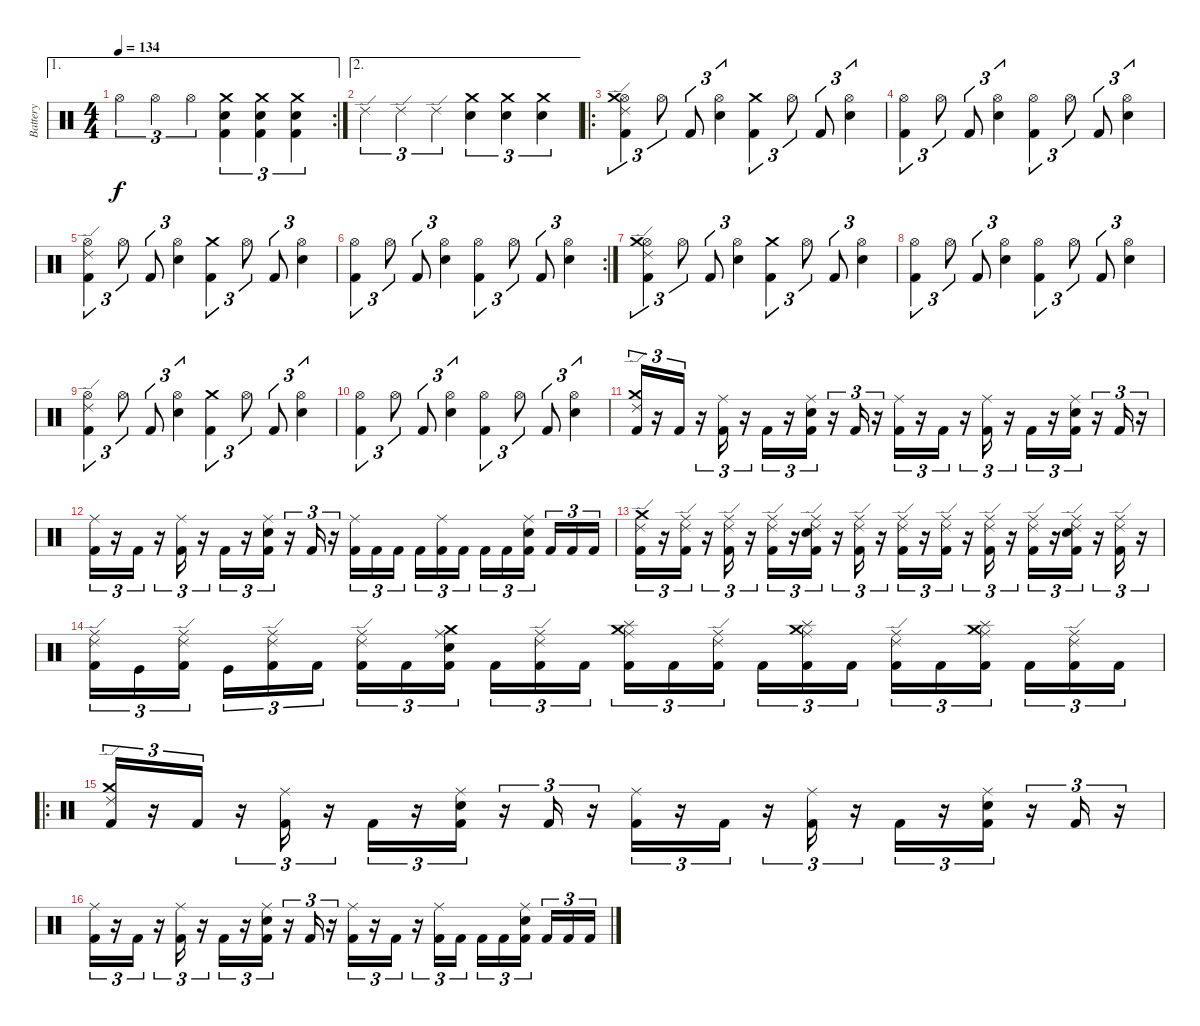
\track ("Battery" "Battery") {instrument percussion}
\staff {score}
\articulation defaults
\ae 1
\rc 2
\ts (4 4)
\tempo 134
\clef neutral
\ks c "Hi-Hat (open)".4{tu (3 2) dy f} "Hi-Hat (open)".4{tu (3 2)} "Hi-Hat (open)".4{tu (3 2)}
("Kick (hit) 2" "Electric Snare (hit)" "Crash medium (hit)").4{tu (3 2)} ("Kick (hit) 2" "Electric Snare (hit)" "Crash medium (hit)").4{tu (3 2)} ("Kick (hit) 2" "Electric Snare (hit)" "Crash medium (hit)").4{tu (3 2)} |
\ae 2 "Ride (edge) 2".4{tu (3 2)} "Ride (edge) 2".4{tu (3 2)} "Ride (edge) 2".4{tu (3 2)}
("Electric Snare (hit)" "Crash medium (hit)").4{tu (3 2)} ("Electric Snare (hit)" "Crash medium (hit)").4{tu (3 2)} ("Electric Snare (hit)" "Crash medium (hit)").4{tu (3 2)} |
\ro
("Kick (hit) 2" "Ride (edge) 2" "Hi-Hat (open)" "Crash medium (hit)").4{tu (3 2)} "Hi-Hat (open)".8{tu (3 2)} "Kick (hit) 2".8{tu (3 2)} ("Electric Snare (hit)" "Hi-Hat (open)").4{tu (3 2)} ("Kick (hit) 2" "Crash medium (hit)").4{tu (3 2)} "Hi-Hat (open)".8{tu (3 2)} "Kick (hit) 2".8{tu (3 2)} ("Electric Snare (hit)" "Hi-Hat (open)").4{tu (3 2)} |
("Kick (hit) 2" "Hi-Hat (open)").4{tu (3 2)} "Hi-Hat (open)".8{tu (3 2)} "Kick (hit) 2".8{tu (3 2)} ("Electric Snare (hit)" "Hi-Hat (open)").4{tu (3 2)} ("Kick (hit) 2" "Hi-Hat (open)").4{tu (3 2)} "Hi-Hat (open)".8{tu (3 2)} "Kick (hit) 2".8{tu (3 2)} ("Electric Snare (hit)" "Hi-Hat (open)").4{tu (3 2)} |
("Kick (hit) 2" "Ride (edge) 2" "Hi-Hat (open)").4{tu (3 2)} "Hi-Hat (open)".8{tu (3 2)} "Kick (hit) 2".8{tu (3 2)} ("Electric Snare (hit)" "Hi-Hat (open)").4{tu (3 2)} ("Kick (hit) 2" "Crash medium (hit)").4{tu (3 2)} "Hi-Hat (open)".8{tu (3 2)} "Kick (hit) 2".8{tu (3 2)} ("Electric Snare (hit)" "Hi-Hat (open)").4{tu (3 2)} |
\rc 2
("Kick (hit) 2" "Hi-Hat (open)").4{tu (3 2)} "Hi-Hat (open)".8{tu (3 2)} "Kick (hit) 2".8{tu (3 2)} ("Electric Snare (hit)" "Hi-Hat (open)").4{tu (3 2)} ("Kick (hit) 2" "Hi-Hat (open)").4{tu (3 2)} "Hi-Hat (open)".8{tu (3 2)} "Kick (hit) 2".8{tu (3 2)} ("Electric Snare (hit)" "Hi-Hat (open)").4{tu (3 2)} |
("Kick (hit) 2" "Ride (edge) 2" "Hi-Hat (open)" "Crash medium (hit)").4{tu (3 2)} "Hi-Hat (open)".8{tu (3 2)} "Kick (hit) 2".8{tu (3 2)} ("Electric Snare (hit)" "Hi-Hat (open)").4{tu (3 2)} ("Kick (hit) 2" "Crash medium (hit)").4{tu (3 2)} "Hi-Hat (open)".8{tu (3 2)} "Kick (hit) 2".8{tu (3 2)} ("Electric Snare (hit)" "Hi-Hat (open)").4{tu (3 2)} |
("Kick (hit) 2" "Hi-Hat (open)").4{tu (3 2)} "Hi-Hat (open)".8{tu (3 2)} "Kick (hit) 2".8{tu (3 2)} ("Electric Snare (hit)" "Hi-Hat (open)").4{tu (3 2)} ("Kick (hit) 2" "Hi-Hat (open)").4{tu (3 2)} "Hi-Hat (open)".8{tu (3 2)} "Kick (hit) 2".8{tu (3 2)} ("Electric Snare (hit)" "Hi-Hat (open)").4{tu (3 2)} |
("Kick (hit) 2" "Ride (edge) 2" "Hi-Hat (open)").4{tu (3 2)} "Hi-Hat (open)".8{tu (3 2)} "Kick (hit) 2".8{tu (3 2)} ("Electric Snare (hit)" "Hi-Hat (open)").4{tu (3 2)} ("Kick (hit) 2" "Crash medium (hit)").4{tu (3 2)} "Hi-Hat (open)".8{tu (3 2)} "Kick (hit) 2".8{tu (3 2)} ("Electric Snare (hit)" "Hi-Hat (open)").4{tu (3 2)} |
("Kick (hit) 2" "Hi-Hat (open)").4{tu (3 2)} "Hi-Hat (open)".8{tu (3 2)} "Kick (hit) 2".8{tu (3 2)} ("Electric Snare (hit)" "Hi-Hat (open)").4{tu (3 2)} ("Kick (hit) 2" "Hi-Hat (open)").4{tu (3 2)} "Hi-Hat (open)".8{tu (3 2)} "Kick (hit) 2".8{tu (3 2)} ("Electric Snare (hit)" "Hi-Hat (open)").4{tu (3 2)} |
("Kick (hit) 2" "Ride (edge) 2" "Crash medium (hit)").16{tu (3 2)} r.16{tu (3 2)} "Kick (hit) 2".16{tu (3 2)} r.16{tu (3 2)} ("Kick (hit) 2" "Ride (middle)").16{tu (3 2)} r.16{tu (3 2)} "Kick (hit) 2".16{tu (3 2)} r.16{tu (3 2)} ("Kick (hit) 2" "Electric Snare (hit)" "Ride (middle)").16{tu (3 2)} r.16{tu (3 2)} "Kick (hit) 2".16{tu (3 2)} r.16{tu (3 2)} ("Kick (hit) 2" "Ride (middle)").16{tu (3 2)} r.16{tu (3 2)} "Kick (hit) 2".16{tu (3 2)} r.16{tu (3 2)} ("Kick (hit) 2" "Ride (middle)").16{tu (3 2)} r.16{tu (3 2)} "Kick (hit) 2".16{tu (3 2)} r.16{tu (3 2)} ("Kick (hit) 2" "Electric Snare (hit)" "Ride (middle)").16{tu (3 2)} r.16{tu (3 2)} "Kick (hit) 2".16{tu (3 2)} r.16{tu (3 2)} |
("Kick (hit) 2" "Ride (middle)").16{tu (3 2)} r.16{tu (3 2)} "Kick (hit) 2".16{tu (3 2)} r.16{tu (3 2)} ("Kick (hit) 2" "Ride (middle)").16{tu (3 2)} r.16{tu (3 2)} "Kick (hit) 2".16{tu (3 2)} r.16{tu (3 2)} ("Kick (hit) 2" "Electric Snare (hit)" "Ride (middle)").16{tu (3 2)} r.16{tu (3 2)} "Kick (hit) 2".16{tu (3 2)} r.16{tu (3 2)} ("Kick (hit) 2" "Ride (middle)").16{tu (3 2)} "Kick (hit) 2".16{tu (3 2)} "Kick (hit) 2".16{tu (3 2)} "Kick (hit) 2".16{tu (3 2)} ("Kick (hit) 2" "Ride (middle)").16{tu (3 2)} "Kick (hit) 2".16{tu (3 2)} "Kick (hit) 2".16{tu (3 2)} "Kick (hit) 2".16{tu (3 2)} ("Kick (hit) 2" "Electric Snare (hit)" "Ride (middle)").16{tu (3 2)} "Kick (hit) 2".16{tu (3 2)} "Kick (hit) 2".16{tu (3 2)} "Kick (hit) 2".16{tu (3 2)} |
("Kick (hit) 2" "Ride (edge) 2" "Crash medium (hit)").16{tu (3 2)} r.16{tu (3 2)} ("Kick (hit) 2" "Ride (middle)" "Ride (edge) 2").16{tu (3 2)} r.16{tu (3 2)} ("Kick (hit) 2" "Ride (middle)" "Ride (edge) 2").16{tu (3 2)} r.16{tu (3 2)} ("Kick (hit) 2" "Ride (middle)" "Ride (edge) 2").16{tu (3 2)} r.16{tu (3 2)} ("Kick (hit) 2" "Electric Snare (hit)" "Ride (middle)" "Ride (edge) 2").16{tu (3 2)} r.16{tu (3 2)} ("Kick (hit) 2" "Ride (middle)" "Ride (edge) 2").16{tu (3 2)} r.16{tu (3 2)} ("Kick (hit) 2" "Ride (middle)" "Ride (edge) 2").16{tu (3 2)} r.16{tu (3 2)} ("Kick (hit) 2" "Ride (middle)" "Ride (edge) 2").16{tu (3 2)} r.16{tu (3 2)} ("Kick (hit) 2" "Ride (middle)" "Ride (edge) 2").16{tu (3 2)} r.16{tu (3 2)} ("Kick (hit) 2" "Ride (middle)" "Ride (edge) 2").16{tu (3 2)} r.16{tu (3 2)} ("Kick (hit) 2" "Electric Snare (hit)" "Ride (middle)" "Ride (edge) 2").16{tu (3 2)} r.16{tu (3 2)} ("Kick (hit) 2" "Ride (middle)" "Ride (edge) 2").16{tu (3 2)} r.16{tu (3 2)} |
("Kick (hit) 2" "Ride (middle)" "Ride (edge) 2").16{tu (3 2)} "Kick (hit)".16{tu (3 2)} ("Kick (hit) 2" "Ride (middle)" "Ride (edge) 2").16{tu (3 2)} "Kick (hit)".16{tu (3 2)} ("Kick (hit) 2" "Ride (middle)" "Ride (edge) 2").16{tu (3 2)} "Kick (hit) 2".16{tu (3 2)} ("Kick (hit) 2" "Ride (middle)" "Ride (edge) 2").16{tu (3 2)} "Kick (hit) 2".16{tu (3 2)} ("Kick (hit) 2" "Electric Snare (hit)" "Ride (middle)" "Crash medium (hit)").16{tu (3 2)} "Kick (hit) 2".16{tu (3 2)} ("Kick (hit) 2" "Ride (middle)" "Ride (edge) 2").16{tu (3 2)} "Kick (hit) 2".16{tu (3 2)} ("Kick (hit) 2" "Crash medium (hit)" "Ride (middle)" "Splash (hit)").16{tu (3 2)} "Kick (hit) 2".16{tu (3 2)} ("Kick (hit) 2" "Ride (middle)" "Ride (edge) 2").16{tu (3 2)} "Kick (hit) 2".16{tu (3 2)} ("Kick (hit) 2" "Crash medium (hit)" "Ride (middle)" "Splash (hit)").16{tu (3 2)} "Kick (hit) 2".16{tu (3 2)} ("Kick (hit) 2" "Ride (middle)" "Ride (edge) 2").16{tu (3 2)} "Kick (hit) 2".16{tu (3 2)} ("Kick (hit) 2" "Crash medium (hit)" "Ride (middle)" "Splash (hit)").16{tu (3 2)} "Kick (hit) 2".16{tu (3 2)} ("Kick (hit) 2" "Ride (middle)" "Ride (edge) 2").16{tu (3 2)} "Kick (hit) 2".16{tu (3 2)} |
\ro
("Kick (hit) 2" "Ride (edge) 2" "Crash medium (hit)").16{tu (3 2)} r.16{tu (3 2)} "Kick (hit) 2".16{tu (3 2)} r.16{tu (3 2)} ("Kick (hit) 2" "Ride (middle)").16{tu (3 2)} r.16{tu (3 2)} "Kick (hit) 2".16{tu (3 2)} r.16{tu (3 2)} ("Kick (hit) 2" "Electric Snare (hit)" "Ride (middle)").16{tu (3 2)} r.16{tu (3 2)} "Kick (hit) 2".16{tu (3 2)} r.16{tu (3 2)} ("Kick (hit) 2" "Ride (middle)").16{tu (3 2)} r.16{tu (3 2)} "Kick (hit) 2".16{tu (3 2)} r.16{tu (3 2)} ("Kick (hit) 2" "Ride (middle)").16{tu (3 2)} r.16{tu (3 2)} "Kick (hit) 2".16{tu (3 2)} r.16{tu (3 2)} ("Kick (hit) 2" "Electric Snare (hit)" "Ride (middle)").16{tu (3 2)} r.16{tu (3 2)} "Kick (hit) 2".16{tu (3 2)} r.16{tu (3 2)} |
("Kick (hit) 2" "Ride (middle)").16{tu (3 2)} r.16{tu (3 2)} "Kick (hit) 2".16{tu (3 2)} r.16{tu (3 2)} ("Kick (hit) 2" "Ride (middle)").16{tu (3 2)} r.16{tu (3 2)} "Kick (hit) 2".16{tu (3 2)} r.16{tu (3 2)} ("Kick (hit) 2" "Electric Snare (hit)" "Ride (middle)").16{tu (3 2)} r.16{tu (3 2)} "Kick (hit) 2".16{tu (3 2)} r.16{tu (3 2)} ("Kick (hit) 2" "Ride (middle)").16{tu (3 2)} r.16{tu (3 2)} "Kick (hit) 2".16{tu (3 2)} r.16{tu (3 2)} ("Kick (hit) 2" "Ride (middle)").16{tu (3 2)} "Kick (hit) 2".16{tu (3 2)} "Kick (hit) 2".16{tu (3 2)} "Kick (hit) 2".16{tu (3 2)} ("Kick (hit) 2" "Electric Snare (hit)" "Ride (middle)").16{tu (3 2)} "Kick (hit) 2".16{tu (3 2)} "Kick (hit) 2".16{tu (3 2)} "Kick (hit) 2".16{tu (3 2)}
